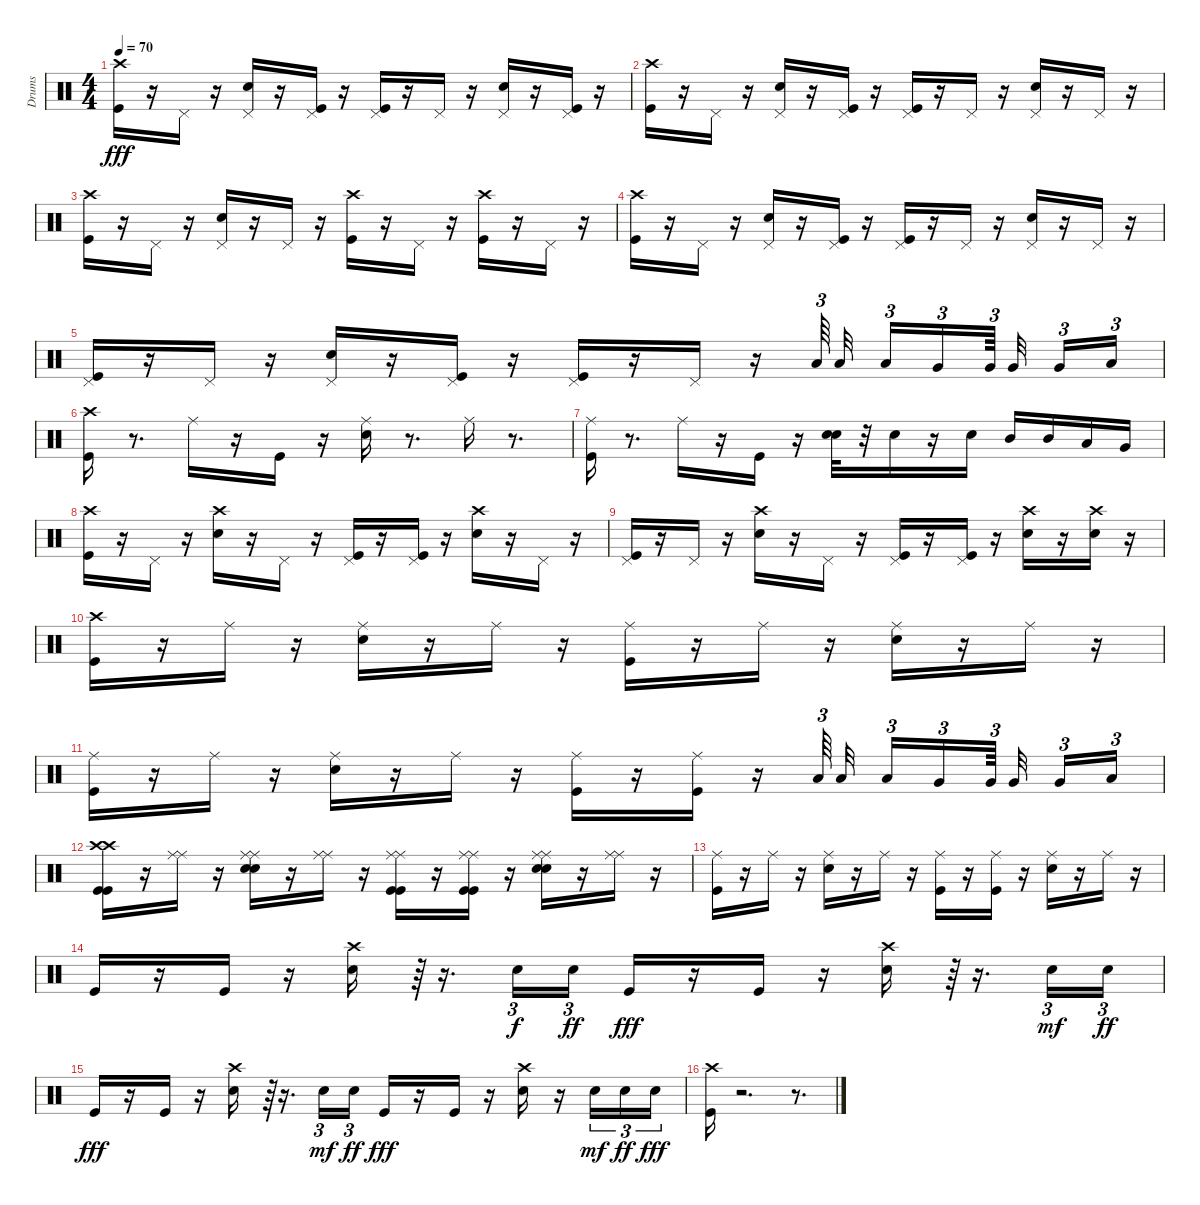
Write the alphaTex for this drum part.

\track ("Drums" "Drums") {instrument percussion}
\staff {score}
\articulation defaults
\ts (4 4)
\tempo 70
\clef neutral
\ks c
("Kick (hit)" "Crash high (hit)").16{dy fff} r.16 "Pedal Hi-Hat (hit)".16 r.16 ("Snare (hit) 2" "Pedal Hi-Hat (hit)").16 r.16 ("Kick (hit)" "Pedal Hi-Hat (hit)").16 r.16 ("Kick (hit)" "Pedal Hi-Hat (hit)").16 r.16 "Pedal Hi-Hat (hit)".16 r.16 ("Snare (hit) 2" "Pedal Hi-Hat (hit)").16 r.16 ("Kick (hit)" "Pedal Hi-Hat (hit)").16 r.16 |
("Kick (hit)" "Crash high (hit)").16 r.16 "Pedal Hi-Hat (hit)".16 r.16 ("Snare (hit) 2" "Pedal Hi-Hat (hit)").16 r.16 ("Kick (hit)" "Pedal Hi-Hat (hit)").16 r.16 ("Kick (hit)" "Pedal Hi-Hat (hit)").16 r.16 "Pedal Hi-Hat (hit)".16 r.16 ("Snare (hit) 2" "Pedal Hi-Hat (hit)").16 r.16 "Pedal Hi-Hat (hit)".16 r.16 |
("Kick (hit)" "Crash high (hit)").16 r.16 "Pedal Hi-Hat (hit)".16 r.16 ("Snare (hit) 2" "Pedal Hi-Hat (hit)").16 r.16 "Pedal Hi-Hat (hit)".16 r.16 ("Crash high (hit)" "Kick (hit)").16 r.16 "Pedal Hi-Hat (hit)".16 r.16 ("Kick (hit)" "Crash high (hit)").16 r.16 "Pedal Hi-Hat (hit)".16 r.16 |
("Crash high (hit)" "Kick (hit)").16 r.16 "Pedal Hi-Hat (hit)".16 r.16 ("Pedal Hi-Hat (hit)" "Snare (hit) 2").16 r.16 ("Pedal Hi-Hat (hit)" "Kick (hit)").16 r.16 ("Pedal Hi-Hat (hit)" "Kick (hit)").16 r.16 "Pedal Hi-Hat (hit)".16 r.16 ("Pedal Hi-Hat (hit)" "Snare (hit) 2").16 r.16 "Pedal Hi-Hat (hit)".16 r.16 |
("Pedal Hi-Hat (hit)" "Kick (hit)").16 r.16 "Pedal Hi-Hat (hit)".16 r.16 ("Pedal Hi-Hat (hit)" "Snare (hit) 2").16 r.16 ("Pedal Hi-Hat (hit)" "Kick (hit)").16 r.16 ("Pedal Hi-Hat (hit)" "Kick (hit)").16 r.16 "Pedal Hi-Hat (hit)".16 r.16 "Low Tom (hit)".64{tu (3 2) beam splitsecondary} "Low Tom (hit)".32{beam splitsecondary} "Low Tom (hit)".16{tu (3 2)} "Very Low Tom (hit)".16{tu (3 2)} "Very Low Tom (hit)".64{tu (3 2) beam splitsecondary} "Very Low Tom (hit)".32{beam splitsecondary} "Very Low Tom (hit)".16{tu (3 2)} "Low Floor Tom (hit)".16{tu (3 2)} |
("Crash high (hit)" "Kick (hit)").16 r.8{d} "Ride (middle)".16 r.16 "Kick (hit)".16 r.16 ("Snare (hit) 2" "Ride (middle)").16 r.8{d} "Ride (middle)".16 r.8{d} |
("Ride (middle)" "Kick (hit)").16 r.8{d} "Ride (middle)".16 r.16 "Kick (hit)".16 r.16 ("Snare (hit) 2" "Snare (hit) 2").32 r.32 "Snare (hit) 2".16 r.16 "Snare (hit) 2".16 "Mid Tom (hit)".16 "Mid Tom (hit)".16 "Low Tom (hit)".16 "Very Low Tom (hit)".16 |
("Crash high (hit)" "Kick (hit)").16 r.16 "Pedal Hi-Hat (hit)".16 r.16 ("Snare (hit) 2" "Crash high (hit)").16 r.16 "Pedal Hi-Hat (hit)".16 r.16 ("Pedal Hi-Hat (hit)" "Kick (hit)").16 r.16 ("Pedal Hi-Hat (hit)" "Kick (hit)").16 r.16 ("Crash high (hit)" "Snare (hit) 2").16 r.16 "Pedal Hi-Hat (hit)".16 r.16 |
("Pedal Hi-Hat (hit)" "Kick (hit)").16 r.16 "Pedal Hi-Hat (hit)".16 r.16 ("Crash high (hit)" "Snare (hit) 2").16 r.16 "Pedal Hi-Hat (hit)".16 r.16 ("Kick (hit)" "Pedal Hi-Hat (hit)").16 r.16 ("Kick (hit)" "Pedal Hi-Hat (hit)").16 r.16 ("Snare (hit) 2" "Crash high (hit)").16 r.16 ("Crash high (hit)" "Snare (hit) 2").16 r.16 |
("Crash high (hit)" "Kick (hit)").16 r.16 "Ride (middle)".16 r.16 ("Snare (hit) 2" "Ride (middle)").16 r.16 "Ride (middle)".16 r.16 ("Ride (middle)" "Kick (hit)").16 r.16 "Ride (middle)".16 r.16 ("Ride (middle)" "Snare (hit) 2").16 r.16 "Ride (middle)".16 r.16 |
("Ride (middle)" "Kick (hit)").16 r.16 "Ride (middle)".16 r.16 ("Ride (middle)" "Snare (hit) 2").16 r.16 "Ride (middle)".16 r.16 ("Kick (hit)" "Ride (middle)").16 r.16 ("Kick (hit)" "Ride (middle)").16 r.16 "Low Tom (hit)".64{tu (3 2) beam splitsecondary} "Low Tom (hit)".32{beam splitsecondary} "Low Tom (hit)".16{tu (3 2)} "Very Low Tom (hit)".16{tu (3 2)} "Very Low Tom (hit)".64{tu (3 2) beam splitsecondary} "Very Low Tom (hit)".32{beam splitsecondary} "Very Low Tom (hit)".16{tu (3 2)} "Low Floor Tom (hit)".16{tu (3 2)} |
("Kick (hit)" "Crash high (hit)" "Crash high (hit)" "Kick (hit)").16 r.16 ("Ride (middle)" "Ride (middle)").16 r.16 ("Snare (hit) 2" "Ride (middle)" "Ride (middle)" "Snare (hit) 2").16 r.16 ("Ride (middle)" "Ride (middle)").16 r.16 ("Ride (middle)" "Kick (hit)" "Kick (hit)" "Ride (middle)").16 r.16 ("Ride (middle)" "Kick (hit)" "Kick (hit)" "Ride (middle)").16 r.16 ("Ride (middle)" "Snare (hit) 2" "Snare (hit) 2" "Ride (middle)").16 r.16 ("Ride (middle)" "Ride (middle)").16 r.16 |
("Ride (middle)" "Kick (hit)").16 r.16 "Ride (middle)".16 r.16 ("Snare (hit) 2" "Ride (middle)").16 r.16 "Ride (middle)".16 r.16 ("Ride (middle)" "Kick (hit)").16 r.16 ("Ride (middle)" "Kick (hit)").16 r.16 ("Ride (middle)" "Snare (hit) 2").16 r.16 "Ride (middle)".16 r.16 |
"Kick (hit)".16 r.16 "Kick (hit)".16 r.16 ("Crash high (hit)" "Snare (hit) 2").16 r.64{tu (3 2)} r.16{d} "Snare (hit) 2".16{tu (3 2) dy f} "Snare (hit) 2".16{tu (3 2) dy ff} "Kick (hit)".16{dy fff} r.16 "Kick (hit)".16 r.16 ("Snare (hit) 2" "Crash high (hit)").16 r.64{tu (3 2)} r.16{d} "Snare (hit) 2".16{tu (3 2) dy mf} "Snare (hit) 2".16{tu (3 2) dy ff} |
"Kick (hit)".16{dy fff} r.16 "Kick (hit)".16 r.16 ("Snare (hit) 2" "Crash high (hit)").16 r.64{tu (3 2)} r.16{d} "Snare (hit) 2".16{tu (3 2) dy mf} "Snare (hit) 2".16{tu (3 2) dy ff} "Kick (hit)".16{dy fff} r.16 "Kick (hit)".16 r.16 ("Crash high (hit)" "Snare (hit) 2").16 r.16 "Snare (hit) 2".16{tu (3 2) dy mf} "Snare (hit) 2".16{tu (3 2) dy ff} "Snare (hit) 2".16{tu (3 2) dy fff} |
("Crash high (hit)" "Kick (hit)").16 r.2{d} r.8{d}
